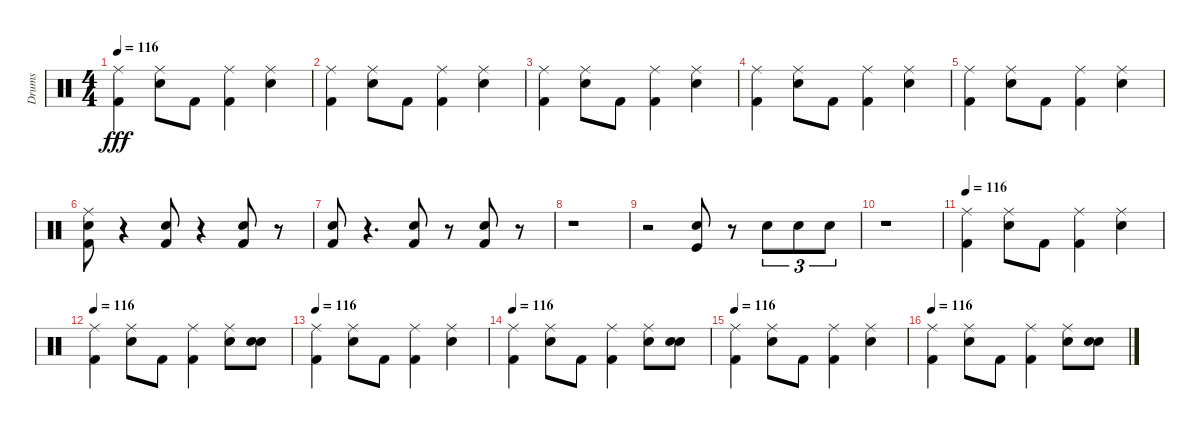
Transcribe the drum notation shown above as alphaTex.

\track ("Drums" "Drums") {instrument percussion}
\staff {score}
\articulation defaults
\ts (4 4)
\tempo 116
\clef neutral
\ks c
("Ride (middle)" "Kick (hit) 2").4{dy fff} ("Ride (middle)" "Snare (hit) 2").8 "Kick (hit) 2".8 ("Ride (middle)" "Kick (hit) 2").4 ("Ride (middle)" "Snare (hit) 2").4 |
("Ride (middle)" "Kick (hit) 2").4 ("Ride (middle)" "Snare (hit) 2").8 "Kick (hit) 2".8 ("Ride (middle)" "Kick (hit) 2").4 ("Ride (middle)" "Snare (hit) 2").4 |
("Ride (middle)" "Kick (hit) 2").4 ("Ride (middle)" "Snare (hit) 2").8 "Kick (hit) 2".8 ("Ride (middle)" "Kick (hit) 2").4 ("Ride (middle)" "Snare (hit) 2").4 |
("Ride (middle)" "Kick (hit) 2").4 ("Ride (middle)" "Snare (hit) 2").8 "Kick (hit) 2".8 ("Ride (middle)" "Kick (hit) 2").4 ("Ride (middle)" "Snare (hit) 2").4 |
("Ride (middle)" "Kick (hit) 2").4 ("Ride (middle)" "Snare (hit) 2").8 "Kick (hit) 2".8 ("Ride (middle)" "Kick (hit) 2").4 ("Ride (middle)" "Snare (hit) 2").4 |
("Ride (middle)" "Snare (hit) 2" "Kick (hit) 2").8 r.4 ("Snare (hit) 2" "Kick (hit) 2").8 r.4 ("Snare (hit) 2" "Kick (hit) 2").8 r.8 |
("Snare (hit) 2" "Kick (hit) 2").8 r.4{d} ("Snare (hit) 2" "Kick (hit) 2").8 r.8 ("Kick (hit) 2" "Snare (hit) 2").8 r.8 |
r.1 |
r.2 ("Snare (hit) 2" "Kick (hit)").8 r.8 "Snare (hit) 2".8{tu (3 2)} "Snare (hit) 2".8{tu (3 2)} "Snare (hit) 2".8{tu (3 2)} |
r.1 |
\tempo 116
("Ride (middle)" "Kick (hit) 2").4 ("Ride (middle)" "Snare (hit) 2").8 "Kick (hit) 2".8 ("Ride (middle)" "Kick (hit) 2").4 ("Ride (middle)" "Snare (hit) 2").4 |
\tempo 116
("Ride (middle)" "Kick (hit) 2").4 ("Ride (middle)" "Snare (hit) 2").8 "Kick (hit) 2".8 ("Ride (middle)" "Kick (hit) 2").4 ("Ride (middle)" "Snare (hit) 2").8 ("Snare (hit) 2" "Snare (hit) 2").8 |
\tempo 116
("Ride (middle)" "Kick (hit) 2").4 ("Ride (middle)" "Snare (hit) 2").8 "Kick (hit) 2".8 ("Ride (middle)" "Kick (hit) 2").4 ("Ride (middle)" "Snare (hit) 2").4 |
\tempo 116
("Ride (middle)" "Kick (hit) 2").4 ("Ride (middle)" "Snare (hit) 2").8 "Kick (hit) 2".8 ("Ride (middle)" "Kick (hit) 2").4 ("Ride (middle)" "Snare (hit) 2").8 ("Snare (hit) 2" "Snare (hit) 2").8 |
\tempo 116
("Ride (middle)" "Kick (hit) 2").4 ("Ride (middle)" "Snare (hit) 2").8 "Kick (hit) 2".8 ("Ride (middle)" "Kick (hit) 2").4 ("Ride (middle)" "Snare (hit) 2").4 |
\tempo 116
("Ride (middle)" "Kick (hit) 2").4 ("Ride (middle)" "Snare (hit) 2").8 "Kick (hit) 2".8 ("Ride (middle)" "Kick (hit) 2").4 ("Ride (middle)" "Snare (hit) 2").8 ("Snare (hit) 2" "Snare (hit) 2").8
